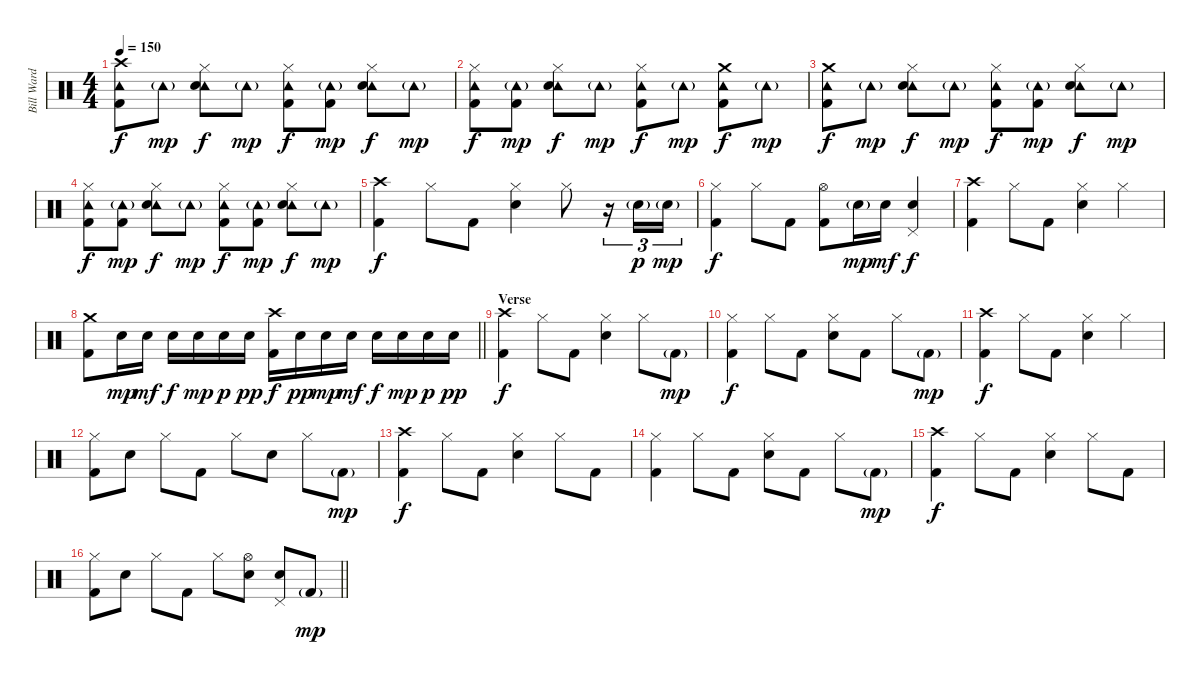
\track ("Bill Ward" "Bill Ward") {instrument percussion}
\staff {score}
\articulation defaults
\ts (4 4)
\tempo 150
\clef neutral
\ks c
("Crash high (hit)" "Tambourine (hit)" "Kick (hit) 2").8{dy f} "Tambourine (hit)"{g}.8{dy mp} ("Hi-Hat (closed)" "Tambourine (hit)" "Electric Snare (hit)").8{dy f} "Tambourine (hit)"{g}.8{dy mp} ("Hi-Hat (closed)" "Tambourine (hit)" "Kick (hit) 2").8{dy f} ("Tambourine (hit)"{g} "Kick (hit) 2").8{dy mp} ("Hi-Hat (closed)" "Tambourine (hit)" "Electric Snare (hit)").8{dy f} "Tambourine (hit)"{g}.8{dy mp} |
("Hi-Hat (closed)" "Tambourine (hit)" "Kick (hit) 2").8{dy f} ("Tambourine (hit)"{g} "Kick (hit) 2").8{dy mp} ("Hi-Hat (closed)" "Tambourine (hit)" "Electric Snare (hit)").8{dy f} "Tambourine (hit)"{g}.8{dy mp} ("Hi-Hat (closed)" "Tambourine (hit)" "Kick (hit) 2").8{dy f} "Tambourine (hit)"{g}.8{dy mp} ("Crash medium (hit)" "Tambourine (hit)" "Kick (hit) 2").8{dy f} "Tambourine (hit)"{g}.8{dy mp} |
("Crash medium (hit)" "Tambourine (hit)" "Kick (hit) 2").8{dy f} "Tambourine (hit)"{g}.8{dy mp} ("Hi-Hat (closed)" "Tambourine (hit)" "Electric Snare (hit)").8{dy f} "Tambourine (hit)"{g}.8{dy mp} ("Hi-Hat (closed)" "Tambourine (hit)" "Kick (hit) 2").8{dy f} ("Tambourine (hit)"{g} "Kick (hit) 2").8{dy mp} ("Hi-Hat (closed)" "Tambourine (hit)" "Electric Snare (hit)").8{dy f} "Tambourine (hit)"{g}.8{dy mp} |
("Hi-Hat (closed)" "Tambourine (hit)" "Kick (hit) 2").8{dy f} ("Tambourine (hit)"{g} "Kick (hit) 2").8{dy mp} ("Hi-Hat (closed)" "Tambourine (hit)" "Electric Snare (hit)").8{dy f} "Tambourine (hit)"{g}.8{dy mp} ("Hi-Hat (closed)" "Tambourine (hit)" "Kick (hit) 2").8{dy f} ("Tambourine (hit)"{g} "Kick (hit) 2").8{dy mp} ("Hi-Hat (closed)" "Tambourine (hit)" "Electric Snare (hit)").8{dy f} "Tambourine (hit)"{g}.8{dy mp} |
("Crash high (hit)" "Kick (hit) 2").4{dy f} "Hi-Hat (closed)".8 "Kick (hit) 2".8 ("Hi-Hat (closed)" "Electric Snare (hit)").4 "Hi-Hat (closed)".8 r.16{tu (3 2)} "Electric Snare (hit)"{g}.16{tu (3 2) dy p} "Electric Snare (hit)"{g}.16{tu (3 2) dy mp} |
("Hi-Hat (closed)" "Kick (hit) 2").4{dy f} "Hi-Hat (closed)".8 "Kick (hit) 2".8 ("Hi-Hat (open)" "Kick (hit) 2").8 "Electric Snare (hit)"{g}.16{dy mp} "Electric Snare (hit)".16{dy mf} ("Pedal Hi-Hat (hit)" "Electric Snare (hit)").4{dy f} |
("Crash high (hit)" "Kick (hit) 2").4 "Hi-Hat (closed)".8 "Kick (hit) 2".8 ("Hi-Hat (closed)" "Electric Snare (hit)").4 "Hi-Hat (closed)".4 |
\barLineRight lightlight
("Crash medium (hit)" "Kick (hit) 2").8 "Electric Snare (hit)".16{dy mp} "Electric Snare (hit)".16{dy mf} "Electric Snare (hit)".16{dy f} "Electric Snare (hit)".16{dy mp} "Electric Snare (hit)".16{dy p} "Electric Snare (hit)".16{dy pp} ("Crash high (hit)" "Kick (hit) 2").16{dy f} "Electric Snare (hit)".16{dy pp} "Electric Snare (hit)".16{dy mp} "Electric Snare (hit)".16{dy mf} "Electric Snare (hit)".16{dy f} "Electric Snare (hit)".16{dy mp} "Electric Snare (hit)".16{dy p} "Electric Snare (hit)".16{dy pp} |
\section ("" "Verse")
("Crash high (hit)" "Kick (hit) 2").4{dy f} "Hi-Hat (closed)".8 "Kick (hit) 2".8 ("Hi-Hat (closed)" "Electric Snare (hit)").4 "Hi-Hat (closed)".8 "Kick (hit) 2"{g}.8{dy mp} |
("Hi-Hat (closed)" "Kick (hit) 2").4{dy f} "Hi-Hat (closed)".8 "Kick (hit) 2".8 ("Hi-Hat (closed)" "Electric Snare (hit)").8 "Kick (hit) 2".8 "Hi-Hat (closed)".8 "Kick (hit) 2"{g}.8{dy mp} |
("Crash high (hit)" "Kick (hit) 2").4{dy f} "Hi-Hat (closed)".8 "Kick (hit) 2".8 ("Hi-Hat (closed)" "Electric Snare (hit)").4 "Hi-Hat (closed)".4 |
("Hi-Hat (closed)" "Kick (hit) 2").8 "Electric Snare (hit)".8 "Hi-Hat (closed)".8 "Kick (hit) 2".8 "Hi-Hat (closed)".8 "Electric Snare (hit)".8 "Hi-Hat (closed)".8 "Kick (hit) 2"{g}.8{dy mp} |
("Crash high (hit)" "Kick (hit) 2").4{dy f} "Hi-Hat (closed)".8 "Kick (hit) 2".8 ("Hi-Hat (closed)" "Electric Snare (hit)").4 "Hi-Hat (closed)".8 "Kick (hit) 2".8 |
("Hi-Hat (closed)" "Kick (hit) 2").4 "Hi-Hat (closed)".8 "Kick (hit) 2".8 ("Hi-Hat (closed)" "Electric Snare (hit)").8 "Kick (hit) 2".8 "Hi-Hat (closed)".8 "Kick (hit) 2"{g}.8{dy mp} |
("Crash high (hit)" "Kick (hit) 2").4{dy f} "Hi-Hat (closed)".8 "Kick (hit) 2".8 ("Hi-Hat (closed)" "Electric Snare (hit)").4 "Hi-Hat (closed)".8 "Kick (hit) 2".8 |
\barLineRight lightlight
("Hi-Hat (closed)" "Kick (hit) 2").8 "Electric Snare (hit)".8 "Hi-Hat (closed)".8 "Kick (hit) 2".8 "Hi-Hat (closed)".8 ("Hi-Hat (open)" "Electric Snare (hit)").8 ("Pedal Hi-Hat (hit)" "Electric Snare (hit)").8 "Kick (hit) 2"{g}.8{dy mp}
